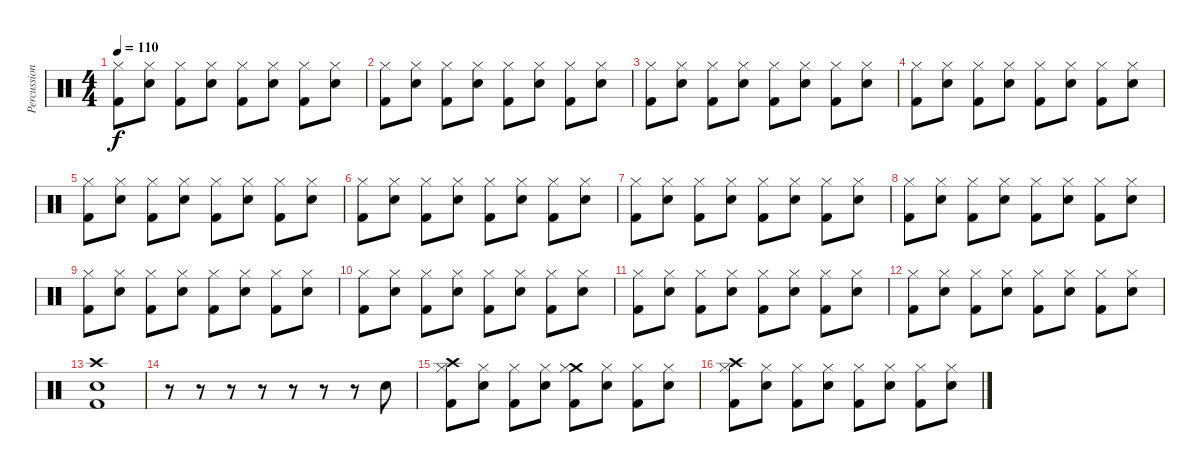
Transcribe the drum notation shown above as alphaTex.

\track ("Percussions" "Percussion") {instrument percussion}
\staff {score}
\articulation defaults
\ts (4 4)
\tempo 110
\clef neutral
\ks c
("Hi-Hat (closed)" "Kick (hit) 2").8{dy f} ("Hi-Hat (closed)" "Electric Snare (hit)").8 ("Hi-Hat (closed)" "Kick (hit) 2").8 ("Hi-Hat (closed)" "Electric Snare (hit)").8 ("Hi-Hat (closed)" "Kick (hit) 2").8 ("Hi-Hat (closed)" "Electric Snare (hit)").8 ("Hi-Hat (closed)" "Kick (hit) 2").8 ("Hi-Hat (closed)" "Electric Snare (hit)").8 |
("Hi-Hat (closed)" "Kick (hit) 2").8 ("Hi-Hat (closed)" "Electric Snare (hit)").8 ("Hi-Hat (closed)" "Kick (hit) 2").8 ("Hi-Hat (closed)" "Electric Snare (hit)").8 ("Hi-Hat (closed)" "Kick (hit) 2").8 ("Hi-Hat (closed)" "Electric Snare (hit)").8 ("Hi-Hat (closed)" "Kick (hit) 2").8 ("Hi-Hat (closed)" "Electric Snare (hit)").8 |
("Hi-Hat (closed)" "Kick (hit) 2").8 ("Hi-Hat (closed)" "Electric Snare (hit)").8 ("Hi-Hat (closed)" "Kick (hit) 2").8 ("Hi-Hat (closed)" "Electric Snare (hit)").8 ("Hi-Hat (closed)" "Kick (hit) 2").8 ("Hi-Hat (closed)" "Electric Snare (hit)").8 ("Hi-Hat (closed)" "Kick (hit) 2").8 ("Hi-Hat (closed)" "Electric Snare (hit)").8 |
("Hi-Hat (closed)" "Kick (hit) 2").8 ("Hi-Hat (closed)" "Electric Snare (hit)").8 ("Hi-Hat (closed)" "Kick (hit) 2").8 ("Hi-Hat (closed)" "Electric Snare (hit)").8 ("Hi-Hat (closed)" "Kick (hit) 2").8 ("Hi-Hat (closed)" "Electric Snare (hit)").8 ("Hi-Hat (closed)" "Kick (hit) 2").8 ("Hi-Hat (closed)" "Electric Snare (hit)").8 |
("Hi-Hat (closed)" "Kick (hit) 2").8 ("Hi-Hat (closed)" "Electric Snare (hit)").8 ("Hi-Hat (closed)" "Kick (hit) 2").8 ("Hi-Hat (closed)" "Electric Snare (hit)").8 ("Hi-Hat (closed)" "Kick (hit) 2").8 ("Hi-Hat (closed)" "Electric Snare (hit)").8 ("Hi-Hat (closed)" "Kick (hit) 2").8 ("Hi-Hat (closed)" "Electric Snare (hit)").8 |
("Hi-Hat (closed)" "Kick (hit) 2").8 ("Hi-Hat (closed)" "Electric Snare (hit)").8 ("Hi-Hat (closed)" "Kick (hit) 2").8 ("Hi-Hat (closed)" "Electric Snare (hit)").8 ("Hi-Hat (closed)" "Kick (hit) 2").8 ("Hi-Hat (closed)" "Electric Snare (hit)").8 ("Hi-Hat (closed)" "Kick (hit) 2").8 ("Hi-Hat (closed)" "Electric Snare (hit)").8 |
("Hi-Hat (closed)" "Kick (hit) 2").8 ("Hi-Hat (closed)" "Electric Snare (hit)").8 ("Hi-Hat (closed)" "Kick (hit) 2").8 ("Hi-Hat (closed)" "Electric Snare (hit)").8 ("Hi-Hat (closed)" "Kick (hit) 2").8 ("Hi-Hat (closed)" "Electric Snare (hit)").8 ("Hi-Hat (closed)" "Kick (hit) 2").8 ("Hi-Hat (closed)" "Electric Snare (hit)").8 |
("Hi-Hat (closed)" "Kick (hit) 2").8 ("Hi-Hat (closed)" "Electric Snare (hit)").8 ("Hi-Hat (closed)" "Kick (hit) 2").8 ("Hi-Hat (closed)" "Electric Snare (hit)").8 ("Hi-Hat (closed)" "Kick (hit) 2").8 ("Hi-Hat (closed)" "Electric Snare (hit)").8 ("Hi-Hat (closed)" "Kick (hit) 2").8 ("Hi-Hat (closed)" "Electric Snare (hit)").8 |
("Hi-Hat (closed)" "Kick (hit) 2").8 ("Hi-Hat (closed)" "Electric Snare (hit)").8 ("Hi-Hat (closed)" "Kick (hit) 2").8 ("Hi-Hat (closed)" "Electric Snare (hit)").8 ("Hi-Hat (closed)" "Kick (hit) 2").8 ("Hi-Hat (closed)" "Electric Snare (hit)").8 ("Hi-Hat (closed)" "Kick (hit) 2").8 ("Hi-Hat (closed)" "Electric Snare (hit)").8 |
("Hi-Hat (closed)" "Kick (hit) 2").8 ("Hi-Hat (closed)" "Electric Snare (hit)").8 ("Hi-Hat (closed)" "Kick (hit) 2").8 ("Hi-Hat (closed)" "Electric Snare (hit)").8 ("Hi-Hat (closed)" "Kick (hit) 2").8 ("Hi-Hat (closed)" "Electric Snare (hit)").8 ("Hi-Hat (closed)" "Kick (hit) 2").8 ("Hi-Hat (closed)" "Electric Snare (hit)").8 |
("Hi-Hat (closed)" "Kick (hit) 2").8 ("Hi-Hat (closed)" "Electric Snare (hit)").8 ("Hi-Hat (closed)" "Kick (hit) 2").8 ("Hi-Hat (closed)" "Electric Snare (hit)").8 ("Hi-Hat (closed)" "Kick (hit) 2").8 ("Hi-Hat (closed)" "Electric Snare (hit)").8 ("Hi-Hat (closed)" "Kick (hit) 2").8 ("Hi-Hat (closed)" "Electric Snare (hit)").8 |
("Hi-Hat (closed)" "Kick (hit) 2").8 ("Hi-Hat (closed)" "Electric Snare (hit)").8 ("Hi-Hat (closed)" "Kick (hit) 2").8 ("Hi-Hat (closed)" "Electric Snare (hit)").8 ("Hi-Hat (closed)" "Kick (hit) 2").8 ("Hi-Hat (closed)" "Electric Snare (hit)").8 ("Hi-Hat (closed)" "Kick (hit) 2").8 ("Hi-Hat (closed)" "Electric Snare (hit)").8 |
("Crash high (hit)" "Electric Snare (hit)" "Kick (hit) 2").1 |
r.8 r.8 r.8 r.8 r.8 r.8 r.8 "Electric Snare (hit)".8 |
("Crash high (hit)" "Hi-Hat (closed)" "Kick (hit) 2").8 ("Hi-Hat (closed)" "Electric Snare (hit)").8 ("Hi-Hat (closed)" "Kick (hit) 2").8 ("Hi-Hat (closed)" "Electric Snare (hit)").8 ("Crash medium (hit)" "Hi-Hat (closed)" "Kick (hit) 2").8 ("Hi-Hat (closed)" "Electric Snare (hit)").8 ("Hi-Hat (closed)" "Kick (hit) 2").8 ("Hi-Hat (closed)" "Electric Snare (hit)").8 |
("Crash high (hit)" "Hi-Hat (closed)" "Kick (hit) 2").8 ("Hi-Hat (closed)" "Electric Snare (hit)").8 ("Hi-Hat (closed)" "Kick (hit) 2").8 ("Hi-Hat (closed)" "Electric Snare (hit)").8 ("Hi-Hat (closed)" "Kick (hit) 2").8 ("Hi-Hat (closed)" "Electric Snare (hit)").8 ("Hi-Hat (closed)" "Kick (hit) 2").8 ("Hi-Hat (closed)" "Electric Snare (hit)").8
